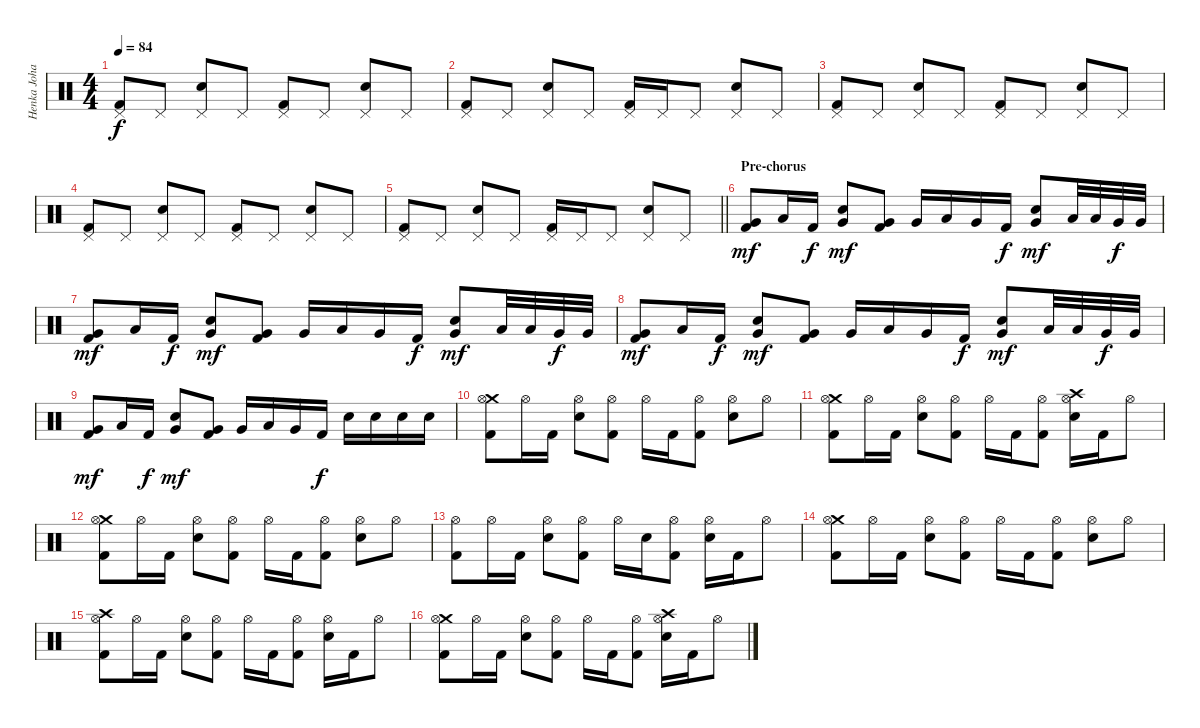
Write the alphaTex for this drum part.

\track ("Henka Johansson" "Henka Joha") {instrument percussion}
\staff {score}
\articulation defaults
\ts (4 4)
\tempo 84
\clef neutral
\ks c
("Pedal Hi-Hat (hit)" "Kick (hit) 2").8{dy f} "Pedal Hi-Hat (hit)".8 ("Pedal Hi-Hat (hit)" "Electric Snare (hit)").8 "Pedal Hi-Hat (hit)".8 ("Pedal Hi-Hat (hit)" "Kick (hit) 2").8 "Pedal Hi-Hat (hit)".8 ("Pedal Hi-Hat (hit)" "Electric Snare (hit)").8 "Pedal Hi-Hat (hit)".8 |
("Pedal Hi-Hat (hit)" "Kick (hit) 2").8 "Pedal Hi-Hat (hit)".8 ("Pedal Hi-Hat (hit)" "Electric Snare (hit)").8 "Pedal Hi-Hat (hit)".8 ("Pedal Hi-Hat (hit)" "Kick (hit) 2").16 "Pedal Hi-Hat (hit)".16 "Pedal Hi-Hat (hit)".8 ("Pedal Hi-Hat (hit)" "Electric Snare (hit)").8 "Pedal Hi-Hat (hit)".8 |
("Pedal Hi-Hat (hit)" "Kick (hit) 2").8 "Pedal Hi-Hat (hit)".8 ("Pedal Hi-Hat (hit)" "Electric Snare (hit)").8 "Pedal Hi-Hat (hit)".8 ("Pedal Hi-Hat (hit)" "Kick (hit) 2").8 "Pedal Hi-Hat (hit)".8 ("Pedal Hi-Hat (hit)" "Electric Snare (hit)").8 "Pedal Hi-Hat (hit)".8 |
("Pedal Hi-Hat (hit)" "Kick (hit) 2").8 "Pedal Hi-Hat (hit)".8 ("Pedal Hi-Hat (hit)" "Electric Snare (hit)").8 "Pedal Hi-Hat (hit)".8 ("Pedal Hi-Hat (hit)" "Kick (hit) 2").8 "Pedal Hi-Hat (hit)".8 ("Pedal Hi-Hat (hit)" "Electric Snare (hit)").8 "Pedal Hi-Hat (hit)".8 |
\barLineRight lightlight
("Pedal Hi-Hat (hit)" "Kick (hit) 2").8 "Pedal Hi-Hat (hit)".8 ("Pedal Hi-Hat (hit)" "Electric Snare (hit)").8 "Pedal Hi-Hat (hit)".8 ("Pedal Hi-Hat (hit)" "Kick (hit) 2").16 "Pedal Hi-Hat (hit)".16 "Pedal Hi-Hat (hit)".8 ("Pedal Hi-Hat (hit)" "Electric Snare (hit)").8 "Pedal Hi-Hat (hit)".8 |
\section ("" "Pre-chorus")
("Very Low Tom (hit)" "Kick (hit) 2").8{dy mf} "Low Tom (hit)".16 "Kick (hit) 2".16{dy f} ("Very Low Tom (hit)" "Electric Snare (hit)").8{dy mf} ("Very Low Tom (hit)" "Kick (hit) 2").8 "Very Low Tom (hit)".16 "Low Tom (hit)".16 "Very Low Tom (hit)".16 "Kick (hit) 2".16{dy f} ("Very Low Tom (hit)" "Electric Snare (hit)").8{dy mf} "Low Tom (hit)".32 "Low Tom (hit)".32 "Very Low Tom (hit)".32{dy f} "Very Low Tom (hit)".32 |
("Very Low Tom (hit)" "Kick (hit) 2").8{dy mf} "Low Tom (hit)".16 "Kick (hit) 2".16{dy f} ("Very Low Tom (hit)" "Electric Snare (hit)").8{dy mf} ("Very Low Tom (hit)" "Kick (hit) 2").8 "Very Low Tom (hit)".16 "Low Tom (hit)".16 "Very Low Tom (hit)".16 "Kick (hit) 2".16{dy f} ("Very Low Tom (hit)" "Electric Snare (hit)").8{dy mf} "Low Tom (hit)".32 "Low Tom (hit)".32 "Very Low Tom (hit)".32{dy f} "Very Low Tom (hit)".32 |
("Very Low Tom (hit)" "Kick (hit) 2").8{dy mf} "Low Tom (hit)".16 "Kick (hit) 2".16{dy f} ("Very Low Tom (hit)" "Electric Snare (hit)").8{dy mf} ("Very Low Tom (hit)" "Kick (hit) 2").8 "Very Low Tom (hit)".16 "Low Tom (hit)".16 "Very Low Tom (hit)".16 "Kick (hit) 2".16{dy f} ("Very Low Tom (hit)" "Electric Snare (hit)").8{dy mf} "Low Tom (hit)".32 "Low Tom (hit)".32 "Very Low Tom (hit)".32{dy f} "Very Low Tom (hit)".32 |
("Very Low Tom (hit)" "Kick (hit) 2").8{dy mf} "Low Tom (hit)".16 "Kick (hit) 2".16{dy f} ("Very Low Tom (hit)" "Electric Snare (hit)").8{dy mf} ("Very Low Tom (hit)" "Kick (hit) 2").8 "Very Low Tom (hit)".16 "Low Tom (hit)".16 "Very Low Tom (hit)".16 "Kick (hit) 2".16{dy f} "Electric Snare (hit)".16 "Electric Snare (hit)".16 "Electric Snare (hit)".16 "Electric Snare (hit)".16 |
("Crash medium (hit)" "Hi-Hat (open)" "Kick (hit) 2").8 "Hi-Hat (open)".16 "Kick (hit) 2".16 ("Hi-Hat (open)" "Electric Snare (hit)").8 ("Hi-Hat (open)" "Kick (hit) 2").8 "Hi-Hat (open)".16 "Kick (hit) 2".16 ("Hi-Hat (open)" "Kick (hit) 2").8 ("Hi-Hat (open)" "Electric Snare (hit)").8 "Hi-Hat (open)".8 |
("Crash medium (hit)" "Hi-Hat (open)" "Kick (hit) 2").8 "Hi-Hat (open)".16 "Kick (hit) 2".16 ("Hi-Hat (open)" "Electric Snare (hit)").8 ("Hi-Hat (open)" "Kick (hit) 2").8 "Hi-Hat (open)".16 "Kick (hit) 2".16 ("Hi-Hat (open)" "Kick (hit) 2").8 ("Crash high (hit)" "Hi-Hat (open)" "Electric Snare (hit)").16 "Kick (hit) 2".16 "Hi-Hat (open)".8 |
("Crash medium (hit)" "Hi-Hat (open)" "Kick (hit) 2").8 "Hi-Hat (open)".16 "Kick (hit) 2".16 ("Hi-Hat (open)" "Electric Snare (hit)").8 ("Hi-Hat (open)" "Kick (hit) 2").8 "Hi-Hat (open)".16 "Kick (hit) 2".16 ("Hi-Hat (open)" "Kick (hit) 2").8 ("Hi-Hat (open)" "Electric Snare (hit)").8 "Hi-Hat (open)".8 |
("Hi-Hat (open)" "Kick (hit) 2").8 "Hi-Hat (open)".16 "Kick (hit) 2".16 ("Hi-Hat (open)" "Electric Snare (hit)").8 ("Hi-Hat (open)" "Kick (hit) 2").8 "Hi-Hat (open)".16 "Electric Snare (hit)".16 ("Hi-Hat (open)" "Kick (hit) 2").8 ("Hi-Hat (open)" "Electric Snare (hit)").16 "Kick (hit) 2".16 "Hi-Hat (open)".8 |
("Crash medium (hit)" "Hi-Hat (open)" "Kick (hit) 2").8 "Hi-Hat (open)".16 "Kick (hit) 2".16 ("Hi-Hat (open)" "Electric Snare (hit)").8 ("Hi-Hat (open)" "Kick (hit) 2").8 "Hi-Hat (open)".16 "Kick (hit) 2".16 ("Hi-Hat (open)" "Kick (hit) 2").8 ("Hi-Hat (open)" "Electric Snare (hit)").8 "Hi-Hat (open)".8 |
("Crash high (hit)" "Hi-Hat (open)" "Kick (hit) 2").8 "Hi-Hat (open)".16 "Kick (hit) 2".16 ("Hi-Hat (open)" "Electric Snare (hit)").8 ("Hi-Hat (open)" "Kick (hit) 2").8 "Hi-Hat (open)".16 "Kick (hit) 2".16 ("Hi-Hat (open)" "Kick (hit) 2").8 ("Hi-Hat (open)" "Electric Snare (hit)").16 "Kick (hit) 2".16 "Hi-Hat (open)".8 |
("Crash medium (hit)" "Hi-Hat (open)" "Kick (hit) 2").8 "Hi-Hat (open)".16 "Kick (hit) 2".16 ("Hi-Hat (open)" "Electric Snare (hit)").8 ("Hi-Hat (open)" "Kick (hit) 2").8 "Hi-Hat (open)".16 "Kick (hit) 2".16 ("Hi-Hat (open)" "Kick (hit) 2").8 ("Crash high (hit)" "Hi-Hat (open)" "Electric Snare (hit)").16 "Kick (hit) 2".16 "Hi-Hat (open)".8
